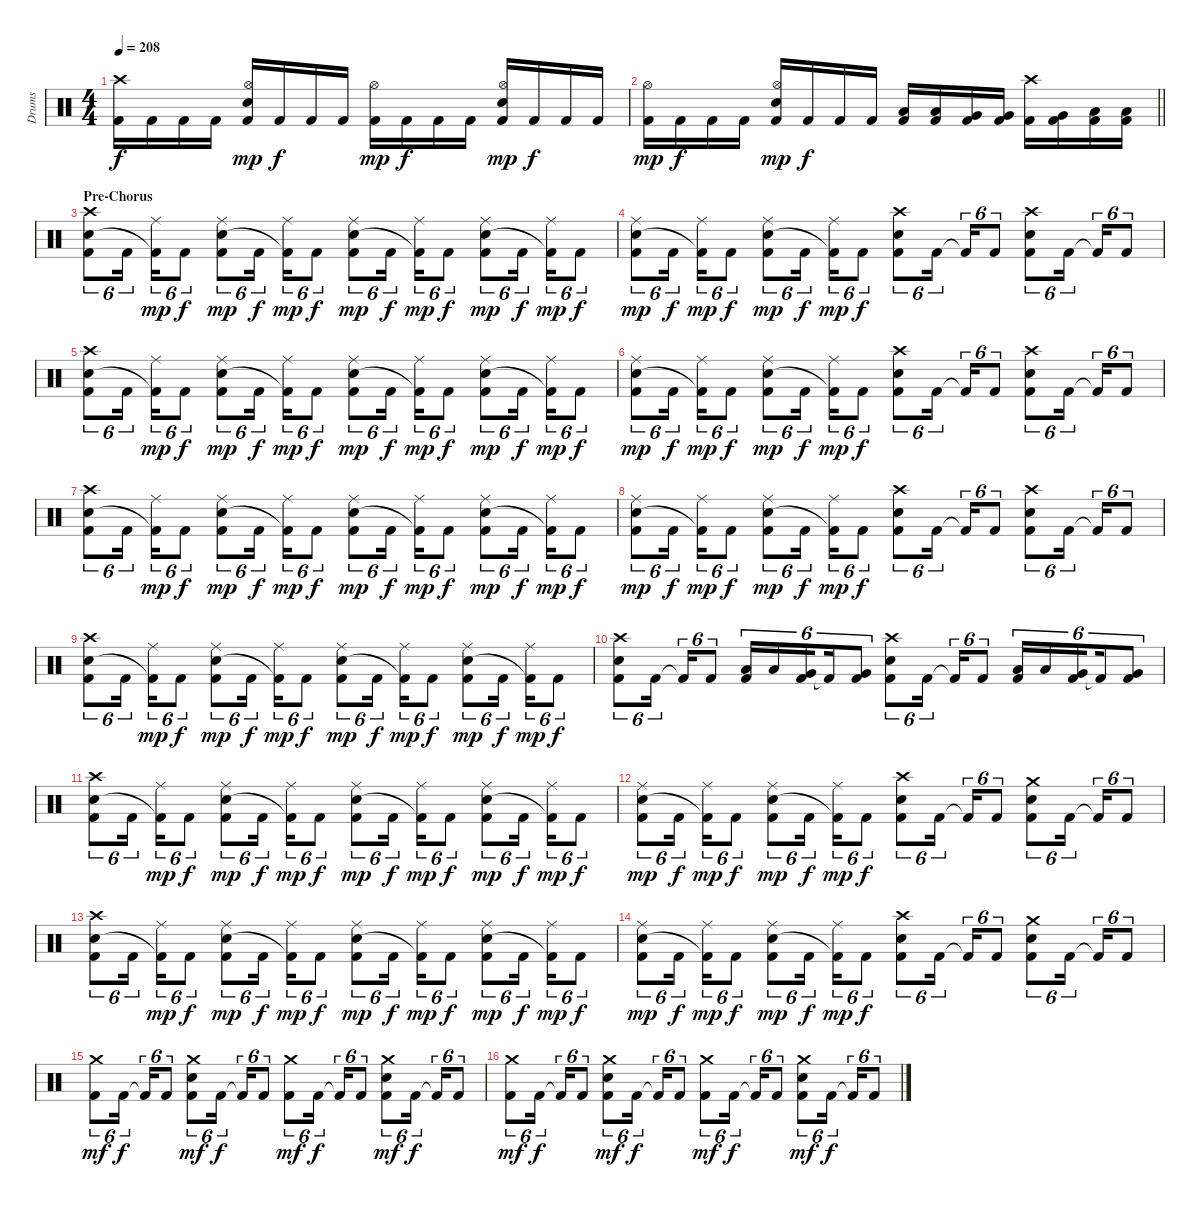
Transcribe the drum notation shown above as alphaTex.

\track ("Drums" "Drums") {instrument percussion}
\staff {score}
\articulation defaults
\ts (4 4)
\tempo 208
\clef neutral
\ks c
("Crash high (hit)" "Kick (hit) 2").16{dy f} "Kick (hit) 2".16 "Kick (hit) 2".16 "Kick (hit) 2".16 ("Hi-Hat (open)" "Electric Snare (hit)" "Kick (hit) 2").16{dy mp} "Kick (hit) 2".16{dy f} "Kick (hit) 2".16 "Kick (hit) 2".16 ("Hi-Hat (open)" "Kick (hit) 2").16{dy mp} "Kick (hit) 2".16{dy f} "Kick (hit) 2".16 "Kick (hit) 2".16 ("Hi-Hat (open)" "Electric Snare (hit)" "Kick (hit) 2").16{dy mp} "Kick (hit) 2".16{dy f} "Kick (hit) 2".16 "Kick (hit) 2".16 |
\barLineRight lightlight
("Hi-Hat (open)" "Kick (hit) 2").16{dy mp} "Kick (hit) 2".16{dy f} "Kick (hit) 2".16 "Kick (hit) 2".16 ("Hi-Hat (open)" "Electric Snare (hit)" "Kick (hit) 2").16{dy mp} "Kick (hit) 2".16{dy f} "Kick (hit) 2".16 "Kick (hit) 2".16 ("Low Tom (hit)" "Kick (hit) 2").16 ("Low Tom (hit)" "Kick (hit) 2").16 ("Very Low Tom (hit)" "Kick (hit) 2").16 ("Very Low Tom (hit)" "Kick (hit) 2").16 ("Crash high (hit)" "Kick (hit) 2").16 ("Very Low Tom (hit)" "Kick (hit) 2").16 ("Low Floor Tom (hit)" "Kick (hit) 2").16 ("Low Floor Tom (hit)" "Kick (hit) 2").16 |
\section ("" "Pre-Chorus")
("Crash high (hit)" "Electric Snare (hit)" "Kick (hit) 2").8{tu (6 4)} "Kick (hit) 2".16{tu (6 4) beam splitsecondary} ("Ride (middle)" "Kick (hit) 2"{t}).16{tu (6 4) dy mp} "Kick (hit) 2".8{tu (6 4) dy f} ("Ride (middle)" "Electric Snare (hit)" "Kick (hit) 2").8{tu (6 4) dy mp} "Kick (hit) 2".16{tu (6 4) dy f beam splitsecondary} ("Ride (middle)" "Kick (hit) 2"{t}).16{tu (6 4) dy mp} "Kick (hit) 2".8{tu (6 4) dy f} ("Ride (middle)" "Electric Snare (hit)" "Kick (hit) 2").8{tu (6 4) dy mp} "Kick (hit) 2".16{tu (6 4) dy f beam splitsecondary} ("Ride (middle)" "Kick (hit) 2"{t}).16{tu (6 4) dy mp} "Kick (hit) 2".8{tu (6 4) dy f} ("Ride (middle)" "Electric Snare (hit)" "Kick (hit) 2").8{tu (6 4) dy mp} "Kick (hit) 2".16{tu (6 4) dy f beam splitsecondary} ("Ride (middle)" "Kick (hit) 2"{t}).16{tu (6 4) dy mp} "Kick (hit) 2".8{tu (6 4) dy f} |
("Ride (middle)" "Electric Snare (hit)" "Kick (hit) 2").8{tu (6 4) dy mp} "Kick (hit) 2".16{tu (6 4) dy f beam splitsecondary} ("Ride (middle)" "Kick (hit) 2"{t}).16{tu (6 4) dy mp} "Kick (hit) 2".8{tu (6 4) dy f} ("Ride (middle)" "Electric Snare (hit)" "Kick (hit) 2").8{tu (6 4) dy mp} "Kick (hit) 2".16{tu (6 4) dy f beam splitsecondary} ("Ride (middle)" "Kick (hit) 2"{t}).16{tu (6 4) dy mp} "Kick (hit) 2".8{tu (6 4) dy f} ("Crash high (hit)" "Electric Snare (hit)" "Kick (hit) 2").8{tu (6 4)} "Kick (hit) 2".16{tu (6 4) beam splitsecondary} "Kick (hit) 2"{t}.16{tu (6 4)} "Kick (hit) 2".8{tu (6 4)} ("Crash high (hit)" "Electric Snare (hit)" "Kick (hit) 2").8{tu (6 4)} "Kick (hit) 2".16{tu (6 4) beam splitsecondary} "Kick (hit) 2"{t}.16{tu (6 4)} "Kick (hit) 2".8{tu (6 4)} |
("Crash high (hit)" "Electric Snare (hit)" "Kick (hit) 2").8{tu (6 4)} "Kick (hit) 2".16{tu (6 4) beam splitsecondary} ("Ride (middle)" "Kick (hit) 2"{t}).16{tu (6 4) dy mp} "Kick (hit) 2".8{tu (6 4) dy f} ("Ride (middle)" "Electric Snare (hit)" "Kick (hit) 2").8{tu (6 4) dy mp} "Kick (hit) 2".16{tu (6 4) dy f beam splitsecondary} ("Ride (middle)" "Kick (hit) 2"{t}).16{tu (6 4) dy mp} "Kick (hit) 2".8{tu (6 4) dy f} ("Ride (middle)" "Electric Snare (hit)" "Kick (hit) 2").8{tu (6 4) dy mp} "Kick (hit) 2".16{tu (6 4) dy f beam splitsecondary} ("Ride (middle)" "Kick (hit) 2"{t}).16{tu (6 4) dy mp} "Kick (hit) 2".8{tu (6 4) dy f} ("Ride (middle)" "Electric Snare (hit)" "Kick (hit) 2").8{tu (6 4) dy mp} "Kick (hit) 2".16{tu (6 4) dy f beam splitsecondary} ("Ride (middle)" "Kick (hit) 2"{t}).16{tu (6 4) dy mp} "Kick (hit) 2".8{tu (6 4) dy f} |
("Ride (middle)" "Electric Snare (hit)" "Kick (hit) 2").8{tu (6 4) dy mp} "Kick (hit) 2".16{tu (6 4) dy f beam splitsecondary} ("Ride (middle)" "Kick (hit) 2"{t}).16{tu (6 4) dy mp} "Kick (hit) 2".8{tu (6 4) dy f} ("Ride (middle)" "Electric Snare (hit)" "Kick (hit) 2").8{tu (6 4) dy mp} "Kick (hit) 2".16{tu (6 4) dy f beam splitsecondary} ("Ride (middle)" "Kick (hit) 2"{t}).16{tu (6 4) dy mp} "Kick (hit) 2".8{tu (6 4) dy f} ("Crash high (hit)" "Electric Snare (hit)" "Kick (hit) 2").8{tu (6 4)} "Kick (hit) 2".16{tu (6 4) beam splitsecondary} "Kick (hit) 2"{t}.16{tu (6 4)} "Kick (hit) 2".8{tu (6 4)} ("Crash high (hit)" "Electric Snare (hit)" "Kick (hit) 2").8{tu (6 4)} "Kick (hit) 2".16{tu (6 4) beam splitsecondary} "Kick (hit) 2"{t}.16{tu (6 4)} "Kick (hit) 2".8{tu (6 4)} |
("Crash high (hit)" "Electric Snare (hit)" "Kick (hit) 2").8{tu (6 4)} "Kick (hit) 2".16{tu (6 4) beam splitsecondary} ("Ride (middle)" "Kick (hit) 2"{t}).16{tu (6 4) dy mp} "Kick (hit) 2".8{tu (6 4) dy f} ("Ride (middle)" "Electric Snare (hit)" "Kick (hit) 2").8{tu (6 4) dy mp} "Kick (hit) 2".16{tu (6 4) dy f beam splitsecondary} ("Ride (middle)" "Kick (hit) 2"{t}).16{tu (6 4) dy mp} "Kick (hit) 2".8{tu (6 4) dy f} ("Ride (middle)" "Electric Snare (hit)" "Kick (hit) 2").8{tu (6 4) dy mp} "Kick (hit) 2".16{tu (6 4) dy f beam splitsecondary} ("Ride (middle)" "Kick (hit) 2"{t}).16{tu (6 4) dy mp} "Kick (hit) 2".8{tu (6 4) dy f} ("Ride (middle)" "Electric Snare (hit)" "Kick (hit) 2").8{tu (6 4) dy mp} "Kick (hit) 2".16{tu (6 4) dy f beam splitsecondary} ("Ride (middle)" "Kick (hit) 2"{t}).16{tu (6 4) dy mp} "Kick (hit) 2".8{tu (6 4) dy f} |
("Ride (middle)" "Electric Snare (hit)" "Kick (hit) 2").8{tu (6 4) dy mp} "Kick (hit) 2".16{tu (6 4) dy f beam splitsecondary} ("Ride (middle)" "Kick (hit) 2"{t}).16{tu (6 4) dy mp} "Kick (hit) 2".8{tu (6 4) dy f} ("Ride (middle)" "Electric Snare (hit)" "Kick (hit) 2").8{tu (6 4) dy mp} "Kick (hit) 2".16{tu (6 4) dy f beam splitsecondary} ("Ride (middle)" "Kick (hit) 2"{t}).16{tu (6 4) dy mp} "Kick (hit) 2".8{tu (6 4) dy f} ("Crash high (hit)" "Electric Snare (hit)" "Kick (hit) 2").8{tu (6 4)} "Kick (hit) 2".16{tu (6 4) beam splitsecondary} "Kick (hit) 2"{t}.16{tu (6 4)} "Kick (hit) 2".8{tu (6 4)} ("Crash high (hit)" "Electric Snare (hit)" "Kick (hit) 2").8{tu (6 4)} "Kick (hit) 2".16{tu (6 4) beam splitsecondary} "Kick (hit) 2"{t}.16{tu (6 4)} "Kick (hit) 2".8{tu (6 4)} |
("Crash high (hit)" "Electric Snare (hit)" "Kick (hit) 2").8{tu (6 4)} "Kick (hit) 2".16{tu (6 4) beam splitsecondary} ("Ride (middle)" "Kick (hit) 2"{t}).16{tu (6 4) dy mp} "Kick (hit) 2".8{tu (6 4) dy f} ("Ride (middle)" "Electric Snare (hit)" "Kick (hit) 2").8{tu (6 4) dy mp} "Kick (hit) 2".16{tu (6 4) dy f beam splitsecondary} ("Ride (middle)" "Kick (hit) 2"{t}).16{tu (6 4) dy mp} "Kick (hit) 2".8{tu (6 4) dy f} ("Ride (middle)" "Electric Snare (hit)" "Kick (hit) 2").8{tu (6 4) dy mp} "Kick (hit) 2".16{tu (6 4) dy f beam splitsecondary} ("Ride (middle)" "Kick (hit) 2"{t}).16{tu (6 4) dy mp} "Kick (hit) 2".8{tu (6 4) dy f} ("Ride (middle)" "Electric Snare (hit)" "Kick (hit) 2").8{tu (6 4) dy mp} "Kick (hit) 2".16{tu (6 4) dy f beam splitsecondary} ("Ride (middle)" "Kick (hit) 2"{t}).16{tu (6 4) dy mp} "Kick (hit) 2".8{tu (6 4) dy f} |
("Crash high (hit)" "Electric Snare (hit)" "Kick (hit) 2").8{tu (6 4)} "Kick (hit) 2".16{tu (6 4) beam splitsecondary} "Kick (hit) 2"{t}.16{tu (6 4)} "Kick (hit) 2".8{tu (6 4)} ("Low Tom (hit)" "Kick (hit) 2").16{tu (6 4)} "Low Tom (hit)".16{tu (6 4)} ("Very Low Tom (hit)" "Kick (hit) 2").16{tu (6 4) beam splitsecondary} "Kick (hit) 2"{t}.16{tu (6 4)} ("Very Low Tom (hit)" "Kick (hit) 2").8{tu (6 4)} ("Crash high (hit)" "Electric Snare (hit)" "Kick (hit) 2").8{tu (6 4)} "Kick (hit) 2".16{tu (6 4) beam splitsecondary} "Kick (hit) 2"{t}.16{tu (6 4)} "Kick (hit) 2".8{tu (6 4)} ("Low Tom (hit)" "Kick (hit) 2").16{tu (6 4)} "Low Tom (hit)".16{tu (6 4)} ("Very Low Tom (hit)" "Kick (hit) 2").16{tu (6 4) beam splitsecondary} "Kick (hit) 2"{t}.16{tu (6 4)} ("Very Low Tom (hit)" "Kick (hit) 2").8{tu (6 4)} |
("Crash high (hit)" "Electric Snare (hit)" "Kick (hit) 2").8{tu (6 4)} "Kick (hit) 2".16{tu (6 4) beam splitsecondary} ("Ride (middle)" "Kick (hit) 2"{t}).16{tu (6 4) dy mp} "Kick (hit) 2".8{tu (6 4) dy f} ("Ride (middle)" "Electric Snare (hit)" "Kick (hit) 2").8{tu (6 4) dy mp} "Kick (hit) 2".16{tu (6 4) dy f beam splitsecondary} ("Ride (middle)" "Kick (hit) 2"{t}).16{tu (6 4) dy mp} "Kick (hit) 2".8{tu (6 4) dy f} ("Ride (middle)" "Electric Snare (hit)" "Kick (hit) 2").8{tu (6 4) dy mp} "Kick (hit) 2".16{tu (6 4) dy f beam splitsecondary} ("Ride (middle)" "Kick (hit) 2"{t}).16{tu (6 4) dy mp} "Kick (hit) 2".8{tu (6 4) dy f} ("Ride (middle)" "Electric Snare (hit)" "Kick (hit) 2").8{tu (6 4) dy mp} "Kick (hit) 2".16{tu (6 4) dy f beam splitsecondary} ("Ride (middle)" "Kick (hit) 2"{t}).16{tu (6 4) dy mp} "Kick (hit) 2".8{tu (6 4) dy f} |
("Ride (middle)" "Electric Snare (hit)" "Kick (hit) 2").8{tu (6 4) dy mp} "Kick (hit) 2".16{tu (6 4) dy f beam splitsecondary} ("Ride (middle)" "Kick (hit) 2"{t}).16{tu (6 4) dy mp} "Kick (hit) 2".8{tu (6 4) dy f} ("Ride (middle)" "Electric Snare (hit)" "Kick (hit) 2").8{tu (6 4) dy mp} "Kick (hit) 2".16{tu (6 4) dy f beam splitsecondary} ("Ride (middle)" "Kick (hit) 2"{t}).16{tu (6 4) dy mp} "Kick (hit) 2".8{tu (6 4) dy f} ("Crash high (hit)" "Electric Snare (hit)" "Kick (hit) 2").8{tu (6 4)} "Kick (hit) 2".16{tu (6 4) beam splitsecondary} "Kick (hit) 2"{t}.16{tu (6 4)} "Kick (hit) 2".8{tu (6 4)} ("Crash medium (hit)" "Electric Snare (hit)" "Kick (hit) 2").8{tu (6 4)} "Kick (hit) 2".16{tu (6 4) beam splitsecondary} "Kick (hit) 2"{t}.16{tu (6 4)} "Kick (hit) 2".8{tu (6 4)} |
("Crash high (hit)" "Electric Snare (hit)" "Kick (hit) 2").8{tu (6 4)} "Kick (hit) 2".16{tu (6 4) beam splitsecondary} ("Ride (middle)" "Kick (hit) 2"{t}).16{tu (6 4) dy mp} "Kick (hit) 2".8{tu (6 4) dy f} ("Ride (middle)" "Electric Snare (hit)" "Kick (hit) 2").8{tu (6 4) dy mp} "Kick (hit) 2".16{tu (6 4) dy f beam splitsecondary} ("Ride (middle)" "Kick (hit) 2"{t}).16{tu (6 4) dy mp} "Kick (hit) 2".8{tu (6 4) dy f} ("Ride (middle)" "Electric Snare (hit)" "Kick (hit) 2").8{tu (6 4) dy mp} "Kick (hit) 2".16{tu (6 4) dy f beam splitsecondary} ("Ride (middle)" "Kick (hit) 2"{t}).16{tu (6 4) dy mp} "Kick (hit) 2".8{tu (6 4) dy f} ("Ride (middle)" "Electric Snare (hit)" "Kick (hit) 2").8{tu (6 4) dy mp} "Kick (hit) 2".16{tu (6 4) dy f beam splitsecondary} ("Ride (middle)" "Kick (hit) 2"{t}).16{tu (6 4) dy mp} "Kick (hit) 2".8{tu (6 4) dy f} |
("Ride (middle)" "Electric Snare (hit)" "Kick (hit) 2").8{tu (6 4) dy mp} "Kick (hit) 2".16{tu (6 4) dy f beam splitsecondary} ("Ride (middle)" "Kick (hit) 2"{t}).16{tu (6 4) dy mp} "Kick (hit) 2".8{tu (6 4) dy f} ("Ride (middle)" "Electric Snare (hit)" "Kick (hit) 2").8{tu (6 4) dy mp} "Kick (hit) 2".16{tu (6 4) dy f beam splitsecondary} ("Ride (middle)" "Kick (hit) 2"{t}).16{tu (6 4) dy mp} "Kick (hit) 2".8{tu (6 4) dy f} ("Crash high (hit)" "Electric Snare (hit)" "Kick (hit) 2").8{tu (6 4)} "Kick (hit) 2".16{tu (6 4) beam splitsecondary} "Kick (hit) 2"{t}.16{tu (6 4)} "Kick (hit) 2".8{tu (6 4)} ("Crash medium (hit)" "Electric Snare (hit)" "Kick (hit) 2").8{tu (6 4)} "Kick (hit) 2".16{tu (6 4) beam splitsecondary} "Kick (hit) 2"{t}.16{tu (6 4)} "Kick (hit) 2".8{tu (6 4)} |
("Crash medium (hit)" "Kick (hit) 2").8{tu (6 4) dy mf} "Kick (hit) 2".16{tu (6 4) dy f beam splitsecondary} "Kick (hit) 2"{t}.16{tu (6 4)} "Kick (hit) 2".8{tu (6 4)} ("Crash medium (hit)" "Electric Snare (hit)" "Kick (hit) 2").8{tu (6 4) dy mf} "Kick (hit) 2".16{tu (6 4) dy f beam splitsecondary} "Kick (hit) 2"{t}.16{tu (6 4)} "Kick (hit) 2".8{tu (6 4)} ("Crash medium (hit)" "Kick (hit) 2").8{tu (6 4) dy mf} "Kick (hit) 2".16{tu (6 4) dy f beam splitsecondary} "Kick (hit) 2"{t}.16{tu (6 4)} "Kick (hit) 2".8{tu (6 4)} ("Crash medium (hit)" "Electric Snare (hit)" "Kick (hit) 2").8{tu (6 4) dy mf} "Kick (hit) 2".16{tu (6 4) dy f beam splitsecondary} "Kick (hit) 2"{t}.16{tu (6 4)} "Kick (hit) 2".8{tu (6 4)} |
("Crash medium (hit)" "Kick (hit) 2").8{tu (6 4) dy mf} "Kick (hit) 2".16{tu (6 4) dy f beam splitsecondary} "Kick (hit) 2"{t}.16{tu (6 4)} "Kick (hit) 2".8{tu (6 4)} ("Crash medium (hit)" "Electric Snare (hit)" "Kick (hit) 2").8{tu (6 4) dy mf} "Kick (hit) 2".16{tu (6 4) dy f beam splitsecondary} "Kick (hit) 2"{t}.16{tu (6 4)} "Kick (hit) 2".8{tu (6 4)} ("Crash medium (hit)" "Kick (hit) 2").8{tu (6 4) dy mf} "Kick (hit) 2".16{tu (6 4) dy f beam splitsecondary} "Kick (hit) 2"{t}.16{tu (6 4)} "Kick (hit) 2".8{tu (6 4)} ("Crash medium (hit)" "Electric Snare (hit)" "Kick (hit) 2").8{tu (6 4) dy mf} "Kick (hit) 2".16{tu (6 4) dy f beam splitsecondary} "Kick (hit) 2"{t}.16{tu (6 4)} "Kick (hit) 2".8{tu (6 4)}
